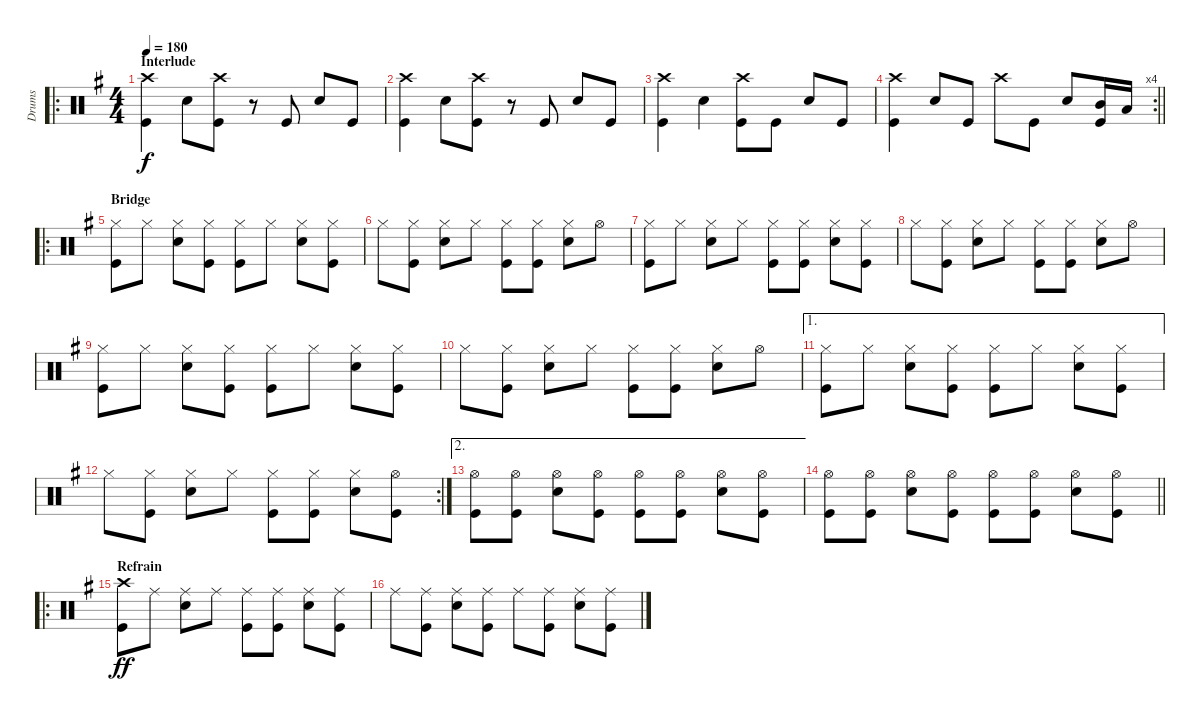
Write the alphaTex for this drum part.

\track ("Drums" "Drums") {instrument percussion}
\staff {score}
\articulation defaults
\ro
\ts (4 4)
\section ("" "Interlude")
\tempo 180
\clef neutral
\ks g
("Crash high (hit)" "Kick (hit)").4{dy f} "Electric Snare (hit)".8 ("Crash high (hit)" "Kick (hit)").8 r.8 "Kick (hit)".8 "Electric Snare (hit)".8 "Kick (hit)".8 |
("Crash high (hit)" "Kick (hit)").4 "Electric Snare (hit)".8 ("Crash high (hit)" "Kick (hit)").8 r.8 "Kick (hit)".8 "Electric Snare (hit)".8 "Kick (hit)".8 |
("Crash high (hit)" "Kick (hit)").4 "Electric Snare (hit)".4 ("Crash high (hit)" "Kick (hit)").8 "Kick (hit)".8 "Electric Snare (hit)".8 "Kick (hit)".8 |
\rc 4
\barLineRight lightlight
("Crash high (hit)" "Kick (hit)").4 "Electric Snare (hit)".8 "Kick (hit)".8 "Crash high (hit)".8 "Kick (hit)".8 "Electric Snare (hit)".8 ("Kick (hit)" "Mid Tom (hit)").16 "Low Tom (hit)".16 |
\ro
\section ("" "Bridge")
("Hi-Hat (closed)" "Kick (hit)").8 "Hi-Hat (closed)".8 ("Hi-Hat (closed)" "Electric Snare (hit)").8 ("Hi-Hat (closed)" "Kick (hit)").8 ("Hi-Hat (closed)" "Kick (hit)").8 "Hi-Hat (closed)".8 ("Hi-Hat (closed)" "Electric Snare (hit)").8 ("Hi-Hat (closed)" "Kick (hit)").8 |
"Hi-Hat (closed)".8 ("Hi-Hat (closed)" "Kick (hit)").8 ("Hi-Hat (closed)" "Electric Snare (hit)").8 "Hi-Hat (closed)".8 ("Hi-Hat (closed)" "Kick (hit)").8 ("Hi-Hat (closed)" "Kick (hit)").8 ("Hi-Hat (closed)" "Electric Snare (hit)").8 "Hi-Hat (open)".8 |
("Hi-Hat (closed)" "Kick (hit)").8 "Hi-Hat (closed)".8 ("Hi-Hat (closed)" "Electric Snare (hit)").8 "Hi-Hat (closed)".8 ("Hi-Hat (closed)" "Kick (hit)").8 ("Hi-Hat (closed)" "Kick (hit)").8 ("Hi-Hat (closed)" "Electric Snare (hit)").8 ("Hi-Hat (closed)" "Kick (hit)").8 |
"Hi-Hat (closed)".8 ("Hi-Hat (closed)" "Kick (hit)").8 ("Hi-Hat (closed)" "Electric Snare (hit)").8 "Hi-Hat (closed)".8 ("Hi-Hat (closed)" "Kick (hit)").8 ("Hi-Hat (closed)" "Kick (hit)").8 ("Hi-Hat (closed)" "Electric Snare (hit)").8 "Hi-Hat (open)".8 |
("Hi-Hat (closed)" "Kick (hit)").8 "Hi-Hat (closed)".8 ("Hi-Hat (closed)" "Electric Snare (hit)").8 ("Hi-Hat (closed)" "Kick (hit)").8 ("Hi-Hat (closed)" "Kick (hit)").8 "Hi-Hat (closed)".8 ("Hi-Hat (closed)" "Electric Snare (hit)").8 ("Hi-Hat (closed)" "Kick (hit)").8 |
"Hi-Hat (closed)".8 ("Hi-Hat (closed)" "Kick (hit)").8 ("Hi-Hat (closed)" "Electric Snare (hit)").8 "Hi-Hat (closed)".8 ("Hi-Hat (closed)" "Kick (hit)").8 ("Hi-Hat (closed)" "Kick (hit)").8 ("Hi-Hat (closed)" "Electric Snare (hit)").8 "Hi-Hat (open)".8 |
\ae 1
("Hi-Hat (closed)" "Kick (hit)").8 "Hi-Hat (closed)".8 ("Hi-Hat (closed)" "Electric Snare (hit)").8 ("Hi-Hat (closed)" "Kick (hit)").8 ("Hi-Hat (closed)" "Kick (hit)").8 "Hi-Hat (closed)".8 ("Hi-Hat (closed)" "Electric Snare (hit)").8 ("Hi-Hat (closed)" "Kick (hit)").8 |
\rc 2 "Hi-Hat (closed)".8
("Hi-Hat (closed)" "Kick (hit)").8 ("Hi-Hat (closed)" "Electric Snare (hit)").8 "Hi-Hat (closed)".8 ("Hi-Hat (closed)" "Kick (hit)").8 ("Hi-Hat (closed)" "Kick (hit)").8 ("Hi-Hat (closed)" "Electric Snare (hit)").8 ("Hi-Hat (open)" "Kick (hit)").8 |
\ae 2
("Hi-Hat (open)" "Kick (hit)").8 ("Hi-Hat (open)" "Kick (hit)").8 ("Hi-Hat (open)" "Electric Snare (hit)").8 ("Hi-Hat (open)" "Kick (hit)").8 ("Hi-Hat (open)" "Kick (hit)").8 ("Hi-Hat (open)" "Kick (hit)").8 ("Hi-Hat (open)" "Electric Snare (hit)").8 ("Hi-Hat (open)" "Kick (hit)").8 |
\barLineRight lightlight
("Hi-Hat (open)" "Kick (hit)").8 ("Hi-Hat (open)" "Kick (hit)").8 ("Hi-Hat (open)" "Electric Snare (hit)").8 ("Hi-Hat (open)" "Kick (hit)").8 ("Hi-Hat (open)" "Kick (hit)").8 ("Hi-Hat (open)" "Kick (hit)").8 ("Hi-Hat (open)" "Electric Snare (hit)").8 ("Hi-Hat (open)" "Kick (hit)").8 |
\ro
\section ("" "Refrain")
("Crash high (hit)" "Kick (hit)").8{dy ff} "Ride (middle)".8 ("Ride (middle)" "Electric Snare (hit)").8 "Ride (middle)".8 ("Ride (middle)" "Kick (hit)").8 ("Ride (middle)" "Kick (hit)").8 ("Ride (middle)" "Electric Snare (hit)").8 ("Ride (middle)" "Kick (hit)").8 |
"Ride (middle)".8 ("Ride (middle)" "Kick (hit)").8 ("Ride (middle)" "Electric Snare (hit)").8 ("Ride (middle)" "Kick (hit)").8 "Ride (middle)".8 ("Ride (middle)" "Kick (hit)").8 ("Ride (middle)" "Electric Snare (hit)").8 ("Ride (middle)" "Kick (hit)").8
